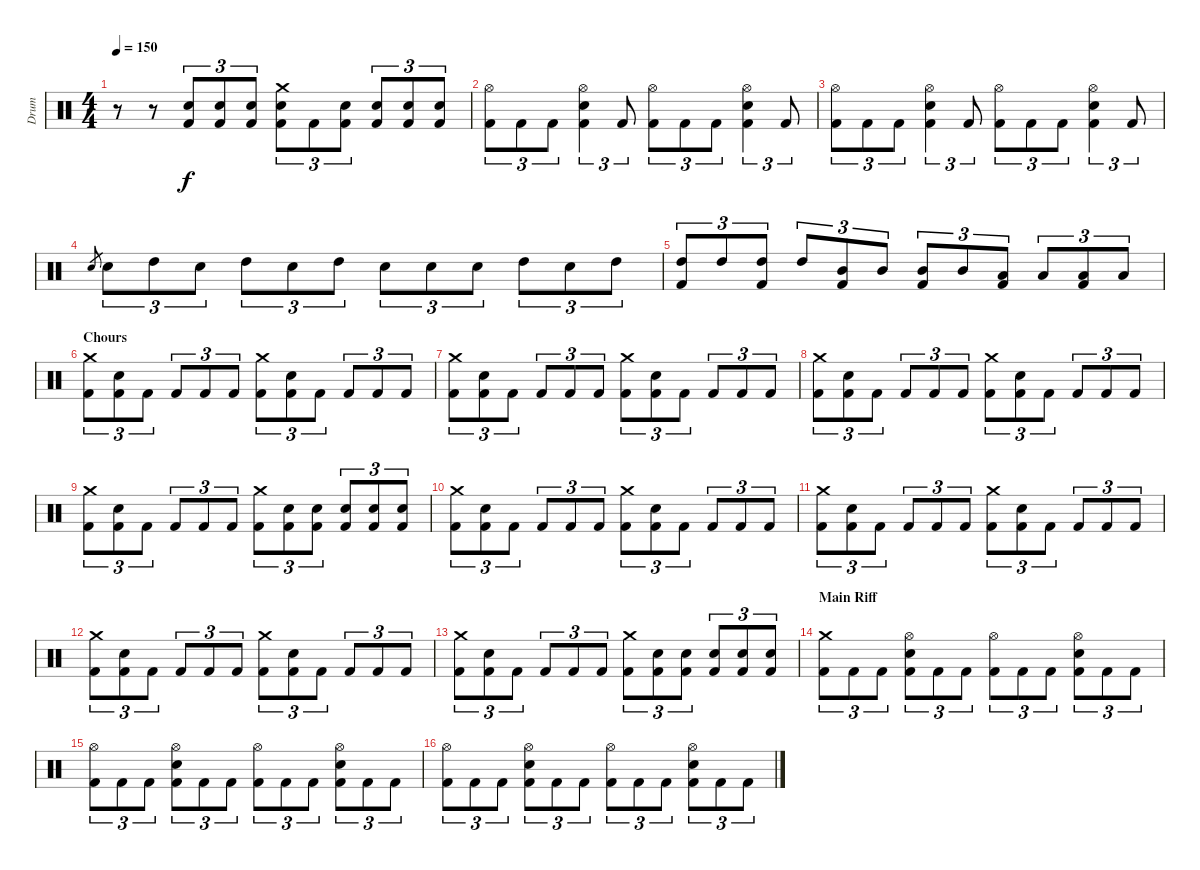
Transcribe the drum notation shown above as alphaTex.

\track ("Drum" "Drum") {instrument percussion}
\staff
\articulation defaults
\ts (4 4)
\tempo 150
\clef neutral
\ks c
r.8{dy f} r.8 ("Electric Snare (hit)" "Kick (hit) 2").8{tu (3 2)} ("Electric Snare (hit)" "Kick (hit) 2").8{tu (3 2)} ("Electric Snare (hit)" "Kick (hit) 2").8{tu (3 2)} ("Crash medium (hit)" "Electric Snare (hit)" "Kick (hit) 2").8{tu (3 2)} "Kick (hit) 2".8{tu (3 2)} ("Electric Snare (hit)" "Kick (hit) 2").8{tu (3 2)} ("Electric Snare (hit)" "Kick (hit) 2").8{tu (3 2)} ("Electric Snare (hit)" "Kick (hit) 2").8{tu (3 2)} ("Electric Snare (hit)" "Kick (hit) 2").8{tu (3 2)} |
("Hi-Hat (open)" "Kick (hit) 2").8{tu (3 2)} "Kick (hit) 2".8{tu (3 2)} "Kick (hit) 2".8{tu (3 2)} ("Hi-Hat (open)" "Electric Snare (hit)" "Kick (hit) 2").4{tu (3 2)} "Kick (hit) 2".8{tu (3 2)} ("Hi-Hat (open)" "Kick (hit) 2").8{tu (3 2)} "Kick (hit) 2".8{tu (3 2)} "Kick (hit) 2".8{tu (3 2)} ("Hi-Hat (open)" "Electric Snare (hit)" "Kick (hit) 2").4{tu (3 2)} "Kick (hit) 2".8{tu (3 2)} |
("Hi-Hat (open)" "Kick (hit) 2").8{tu (3 2)} "Kick (hit) 2".8{tu (3 2)} "Kick (hit) 2".8{tu (3 2)} ("Hi-Hat (open)" "Electric Snare (hit)" "Kick (hit) 2").4{tu (3 2)} "Kick (hit) 2".8{tu (3 2)} ("Hi-Hat (open)" "Kick (hit) 2").8{tu (3 2)} "Kick (hit) 2".8{tu (3 2)} "Kick (hit) 2".8{tu (3 2)} ("Hi-Hat (open)" "Electric Snare (hit)" "Kick (hit) 2").4{tu (3 2)} "Kick (hit) 2".8{tu (3 2)} |
"Electric Snare (hit)".8{gr} "Electric Snare (hit)".8{tu (3 2)} "High Tom (hit)".8{tu (3 2)} "Electric Snare (hit)".8{tu (3 2)} "High Tom (hit)".8{tu (3 2)} "Electric Snare (hit)".8{tu (3 2)} "High Tom (hit)".8{tu (3 2)} "Electric Snare (hit)".8{tu (3 2)} "Electric Snare (hit)".8{tu (3 2)} "Electric Snare (hit)".8{tu (3 2)} "High Tom (hit)".8{tu (3 2)} "Electric Snare (hit)".8{tu (3 2)} "High Tom (hit)".8{tu (3 2)} |
("High Tom (hit)" "Kick (hit) 2").8{tu (3 2)} "High Tom (hit)".8{tu (3 2)} ("High Tom (hit)" "Kick (hit) 2").8{tu (3 2)} "High Tom (hit)".8{tu (3 2)} ("Mid Tom (hit)" "Kick (hit) 2").8{tu (3 2)} "Mid Tom (hit)".8{tu (3 2)} ("Mid Tom (hit)" "Kick (hit) 2").8{tu (3 2)} "Mid Tom (hit)".8{tu (3 2)} ("Low Tom (hit)" "Kick (hit) 2").8{tu (3 2)} "Low Tom (hit)".8{tu (3 2)} ("Low Tom (hit)" "Kick (hit) 2").8{tu (3 2)} "Low Tom (hit)".8{tu (3 2)} |
\section ("" "Chours")
("Crash medium (hit)" "Kick (hit) 2").8{tu (3 2)} ("Electric Snare (hit)" "Kick (hit) 2").8{tu (3 2)} "Kick (hit) 2".8{tu (3 2)} "Kick (hit) 2".8{tu (3 2)} "Kick (hit) 2".8{tu (3 2)} "Kick (hit) 2".8{tu (3 2)} ("Crash medium (hit)" "Kick (hit) 2").8{tu (3 2)} ("Electric Snare (hit)" "Kick (hit) 2").8{tu (3 2)} "Kick (hit) 2".8{tu (3 2)} "Kick (hit) 2".8{tu (3 2)} "Kick (hit) 2".8{tu (3 2)} "Kick (hit) 2".8{tu (3 2)} |
("Crash medium (hit)" "Kick (hit) 2").8{tu (3 2)} ("Electric Snare (hit)" "Kick (hit) 2").8{tu (3 2)} "Kick (hit) 2".8{tu (3 2)} "Kick (hit) 2".8{tu (3 2)} "Kick (hit) 2".8{tu (3 2)} "Kick (hit) 2".8{tu (3 2)} ("Crash medium (hit)" "Kick (hit) 2").8{tu (3 2)} ("Electric Snare (hit)" "Kick (hit) 2").8{tu (3 2)} "Kick (hit) 2".8{tu (3 2)} "Kick (hit) 2".8{tu (3 2)} "Kick (hit) 2".8{tu (3 2)} "Kick (hit) 2".8{tu (3 2)} |
("Crash medium (hit)" "Kick (hit) 2").8{tu (3 2)} ("Electric Snare (hit)" "Kick (hit) 2").8{tu (3 2)} "Kick (hit) 2".8{tu (3 2)} "Kick (hit) 2".8{tu (3 2)} "Kick (hit) 2".8{tu (3 2)} "Kick (hit) 2".8{tu (3 2)} ("Crash medium (hit)" "Kick (hit) 2").8{tu (3 2)} ("Electric Snare (hit)" "Kick (hit) 2").8{tu (3 2)} "Kick (hit) 2".8{tu (3 2)} "Kick (hit) 2".8{tu (3 2)} "Kick (hit) 2".8{tu (3 2)} "Kick (hit) 2".8{tu (3 2)} |
("Crash medium (hit)" "Kick (hit) 2").8{tu (3 2)} ("Electric Snare (hit)" "Kick (hit) 2").8{tu (3 2)} "Kick (hit) 2".8{tu (3 2)} "Kick (hit) 2".8{tu (3 2)} "Kick (hit) 2".8{tu (3 2)} "Kick (hit) 2".8{tu (3 2)} ("Crash medium (hit)" "Kick (hit) 2").8{tu (3 2)} ("Electric Snare (hit)" "Kick (hit) 2").8{tu (3 2)} ("Electric Snare (hit)" "Kick (hit) 2").8{tu (3 2)} ("Electric Snare (hit)" "Kick (hit) 2").8{tu (3 2)} ("Electric Snare (hit)" "Kick (hit) 2").8{tu (3 2)} ("Electric Snare (hit)" "Kick (hit) 2").8{tu (3 2)} |
("Crash medium (hit)" "Kick (hit) 2").8{tu (3 2)} ("Electric Snare (hit)" "Kick (hit) 2").8{tu (3 2)} "Kick (hit) 2".8{tu (3 2)} "Kick (hit) 2".8{tu (3 2)} "Kick (hit) 2".8{tu (3 2)} "Kick (hit) 2".8{tu (3 2)} ("Crash medium (hit)" "Kick (hit) 2").8{tu (3 2)} ("Electric Snare (hit)" "Kick (hit) 2").8{tu (3 2)} "Kick (hit) 2".8{tu (3 2)} "Kick (hit) 2".8{tu (3 2)} "Kick (hit) 2".8{tu (3 2)} "Kick (hit) 2".8{tu (3 2)} |
("Crash medium (hit)" "Kick (hit) 2").8{tu (3 2)} ("Electric Snare (hit)" "Kick (hit) 2").8{tu (3 2)} "Kick (hit) 2".8{tu (3 2)} "Kick (hit) 2".8{tu (3 2)} "Kick (hit) 2".8{tu (3 2)} "Kick (hit) 2".8{tu (3 2)} ("Crash medium (hit)" "Kick (hit) 2").8{tu (3 2)} ("Electric Snare (hit)" "Kick (hit) 2").8{tu (3 2)} "Kick (hit) 2".8{tu (3 2)} "Kick (hit) 2".8{tu (3 2)} "Kick (hit) 2".8{tu (3 2)} "Kick (hit) 2".8{tu (3 2)} |
("Crash medium (hit)" "Kick (hit) 2").8{tu (3 2)} ("Electric Snare (hit)" "Kick (hit) 2").8{tu (3 2)} "Kick (hit) 2".8{tu (3 2)} "Kick (hit) 2".8{tu (3 2)} "Kick (hit) 2".8{tu (3 2)} "Kick (hit) 2".8{tu (3 2)} ("Crash medium (hit)" "Kick (hit) 2").8{tu (3 2)} ("Electric Snare (hit)" "Kick (hit) 2").8{tu (3 2)} "Kick (hit) 2".8{tu (3 2)} "Kick (hit) 2".8{tu (3 2)} "Kick (hit) 2".8{tu (3 2)} "Kick (hit) 2".8{tu (3 2)} |
("Crash medium (hit)" "Kick (hit) 2").8{tu (3 2)} ("Electric Snare (hit)" "Kick (hit) 2").8{tu (3 2)} "Kick (hit) 2".8{tu (3 2)} "Kick (hit) 2".8{tu (3 2)} "Kick (hit) 2".8{tu (3 2)} "Kick (hit) 2".8{tu (3 2)} ("Crash medium (hit)" "Kick (hit) 2").8{tu (3 2)} ("Electric Snare (hit)" "Kick (hit) 2").8{tu (3 2)} ("Electric Snare (hit)" "Kick (hit) 2").8{tu (3 2)} ("Electric Snare (hit)" "Kick (hit) 2").8{tu (3 2)} ("Electric Snare (hit)" "Kick (hit) 2").8{tu (3 2)} ("Electric Snare (hit)" "Kick (hit) 2").8{tu (3 2)} |
\section ("" "Main Riff")
("Crash medium (hit)" "Kick (hit) 2").8{tu (3 2)} "Kick (hit) 2".8{tu (3 2)} "Kick (hit) 2".8{tu (3 2)} ("Hi-Hat (open)" "Electric Snare (hit)" "Kick (hit) 2").8{tu (3 2)} "Kick (hit) 2".8{tu (3 2)} "Kick (hit) 2".8{tu (3 2)} ("Hi-Hat (open)" "Kick (hit) 2").8{tu (3 2)} "Kick (hit) 2".8{tu (3 2)} "Kick (hit) 2".8{tu (3 2)} ("Hi-Hat (open)" "Electric Snare (hit)" "Kick (hit) 2").8{tu (3 2)} "Kick (hit) 2".8{tu (3 2)} "Kick (hit) 2".8{tu (3 2)} |
("Hi-Hat (open)" "Kick (hit) 2").8{tu (3 2)} "Kick (hit) 2".8{tu (3 2)} "Kick (hit) 2".8{tu (3 2)} ("Hi-Hat (open)" "Electric Snare (hit)" "Kick (hit) 2").8{tu (3 2)} "Kick (hit) 2".8{tu (3 2)} "Kick (hit) 2".8{tu (3 2)} ("Hi-Hat (open)" "Kick (hit) 2").8{tu (3 2)} "Kick (hit) 2".8{tu (3 2)} "Kick (hit) 2".8{tu (3 2)} ("Hi-Hat (open)" "Electric Snare (hit)" "Kick (hit) 2").8{tu (3 2)} "Kick (hit) 2".8{tu (3 2)} "Kick (hit) 2".8{tu (3 2)} |
("Hi-Hat (open)" "Kick (hit) 2").8{tu (3 2)} "Kick (hit) 2".8{tu (3 2)} "Kick (hit) 2".8{tu (3 2)} ("Hi-Hat (open)" "Electric Snare (hit)" "Kick (hit) 2").8{tu (3 2)} "Kick (hit) 2".8{tu (3 2)} "Kick (hit) 2".8{tu (3 2)} ("Hi-Hat (open)" "Kick (hit) 2").8{tu (3 2)} "Kick (hit) 2".8{tu (3 2)} "Kick (hit) 2".8{tu (3 2)} ("Hi-Hat (open)" "Electric Snare (hit)" "Kick (hit) 2").8{tu (3 2)} "Kick (hit) 2".8{tu (3 2)} "Kick (hit) 2".8{tu (3 2)}
